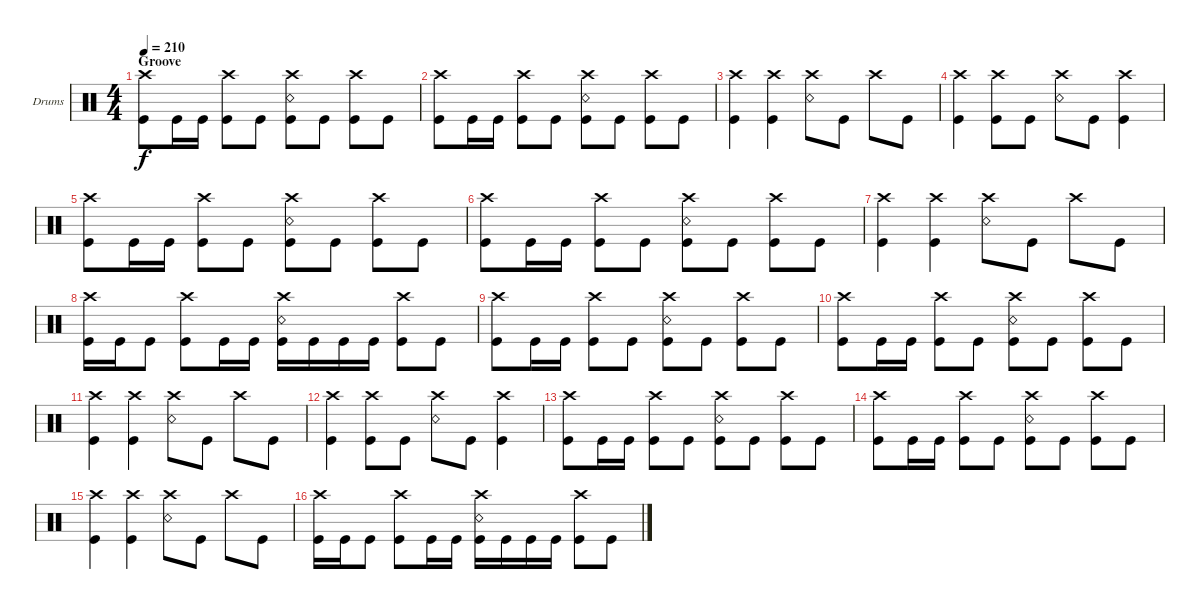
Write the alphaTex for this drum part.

\defaultSystemsLayout 4
\bracketExtendMode groupsimilarinstruments
\firstSystemTrackNameOrientation horizontal
\otherSystemsTrackNameOrientation horizontal
\track ("Drums" "Drums") {instrument percussion}
\staff {score}
\articulation defaults
\ts (4 4)
\section ("" "Groove")
\tempo 210
\clef neutral
\ks c
("Crash high (hit)" "Kick (hit)").8{dy f} "Kick (hit)".16 "Kick (hit)".16 ("Crash high (hit)" "Kick (hit)").8 "Kick (hit)".8 ("Crash high (hit)" "Snare (rim shot)" "Kick (hit)").8 "Kick (hit)".8 ("Crash high (hit)" "Kick (hit)").8 "Kick (hit)".8 |
("Crash high (hit)" "Kick (hit)").8 "Kick (hit)".16 "Kick (hit)".16 ("Crash high (hit)" "Kick (hit)").8 "Kick (hit)".8 ("Crash high (hit)" "Snare (rim shot)" "Kick (hit)").8 "Kick (hit)".8 ("Crash high (hit)" "Kick (hit)").8 "Kick (hit)".8 |
("Crash high (hit)" "Kick (hit)").4 ("Crash high (hit)" "Kick (hit)").4 ("Crash high (hit)" "Snare (rim shot)").8 "Kick (hit)".8 "Crash high (hit)".8 "Kick (hit)".8 |
("Crash high (hit)" "Kick (hit)").4 ("Crash high (hit)" "Kick (hit)").8 "Kick (hit)".8 ("Crash high (hit)" "Snare (rim shot)").8 "Kick (hit)".8 ("Crash high (hit)" "Kick (hit)").4 |
("Crash high (hit)" "Kick (hit)").8 "Kick (hit)".16 "Kick (hit)".16 ("Crash high (hit)" "Kick (hit)").8 "Kick (hit)".8 ("Crash high (hit)" "Snare (rim shot)" "Kick (hit)").8 "Kick (hit)".8 ("Crash high (hit)" "Kick (hit)").8 "Kick (hit)".8 |
("Crash high (hit)" "Kick (hit)").8 "Kick (hit)".16 "Kick (hit)".16 ("Crash high (hit)" "Kick (hit)").8 "Kick (hit)".8 ("Crash high (hit)" "Snare (rim shot)" "Kick (hit)").8 "Kick (hit)".8 ("Crash high (hit)" "Kick (hit)").8 "Kick (hit)".8 |
("Crash high (hit)" "Kick (hit)").4 ("Crash high (hit)" "Kick (hit)").4 ("Crash high (hit)" "Snare (rim shot)").8 "Kick (hit)".8 "Crash high (hit)".8 "Kick (hit)".8 |
("Crash high (hit)" "Kick (hit)").16 "Kick (hit)".16 "Kick (hit)".8 ("Crash high (hit)" "Kick (hit)").8 "Kick (hit)".16 "Kick (hit)".16 ("Crash high (hit)" "Snare (rim shot)" "Kick (hit)").16 "Kick (hit)".16 "Kick (hit)".16 "Kick (hit)".16 ("Crash high (hit)" "Kick (hit)").8 "Kick (hit)".8 |
("Crash high (hit)" "Kick (hit)").8 "Kick (hit)".16 "Kick (hit)".16 ("Crash high (hit)" "Kick (hit)").8 "Kick (hit)".8 ("Crash high (hit)" "Snare (rim shot)" "Kick (hit)").8 "Kick (hit)".8 ("Crash high (hit)" "Kick (hit)").8 "Kick (hit)".8 |
("Crash high (hit)" "Kick (hit)").8 "Kick (hit)".16 "Kick (hit)".16 ("Crash high (hit)" "Kick (hit)").8 "Kick (hit)".8 ("Crash high (hit)" "Snare (rim shot)" "Kick (hit)").8 "Kick (hit)".8 ("Crash high (hit)" "Kick (hit)").8 "Kick (hit)".8 |
("Crash high (hit)" "Kick (hit)").4 ("Crash high (hit)" "Kick (hit)").4 ("Crash high (hit)" "Snare (rim shot)").8 "Kick (hit)".8 "Crash high (hit)".8 "Kick (hit)".8 |
("Crash high (hit)" "Kick (hit)").4 ("Crash high (hit)" "Kick (hit)").8 "Kick (hit)".8 ("Crash high (hit)" "Snare (rim shot)").8 "Kick (hit)".8 ("Crash high (hit)" "Kick (hit)").4 |
("Crash high (hit)" "Kick (hit)").8 "Kick (hit)".16 "Kick (hit)".16 ("Crash high (hit)" "Kick (hit)").8 "Kick (hit)".8 ("Crash high (hit)" "Snare (rim shot)" "Kick (hit)").8 "Kick (hit)".8 ("Crash high (hit)" "Kick (hit)").8 "Kick (hit)".8 |
("Crash high (hit)" "Kick (hit)").8 "Kick (hit)".16 "Kick (hit)".16 ("Crash high (hit)" "Kick (hit)").8 "Kick (hit)".8 ("Crash high (hit)" "Snare (rim shot)" "Kick (hit)").8 "Kick (hit)".8 ("Crash high (hit)" "Kick (hit)").8 "Kick (hit)".8 |
("Crash high (hit)" "Kick (hit)").4 ("Crash high (hit)" "Kick (hit)").4 ("Crash high (hit)" "Snare (rim shot)").8 "Kick (hit)".8 "Crash high (hit)".8 "Kick (hit)".8 |
("Crash high (hit)" "Kick (hit)").16 "Kick (hit)".16 "Kick (hit)".8 ("Crash high (hit)" "Kick (hit)").8 "Kick (hit)".16 "Kick (hit)".16 ("Crash high (hit)" "Snare (rim shot)" "Kick (hit)").16 "Kick (hit)".16 "Kick (hit)".16 "Kick (hit)".16 ("Crash high (hit)" "Kick (hit)").8 "Kick (hit)".8
